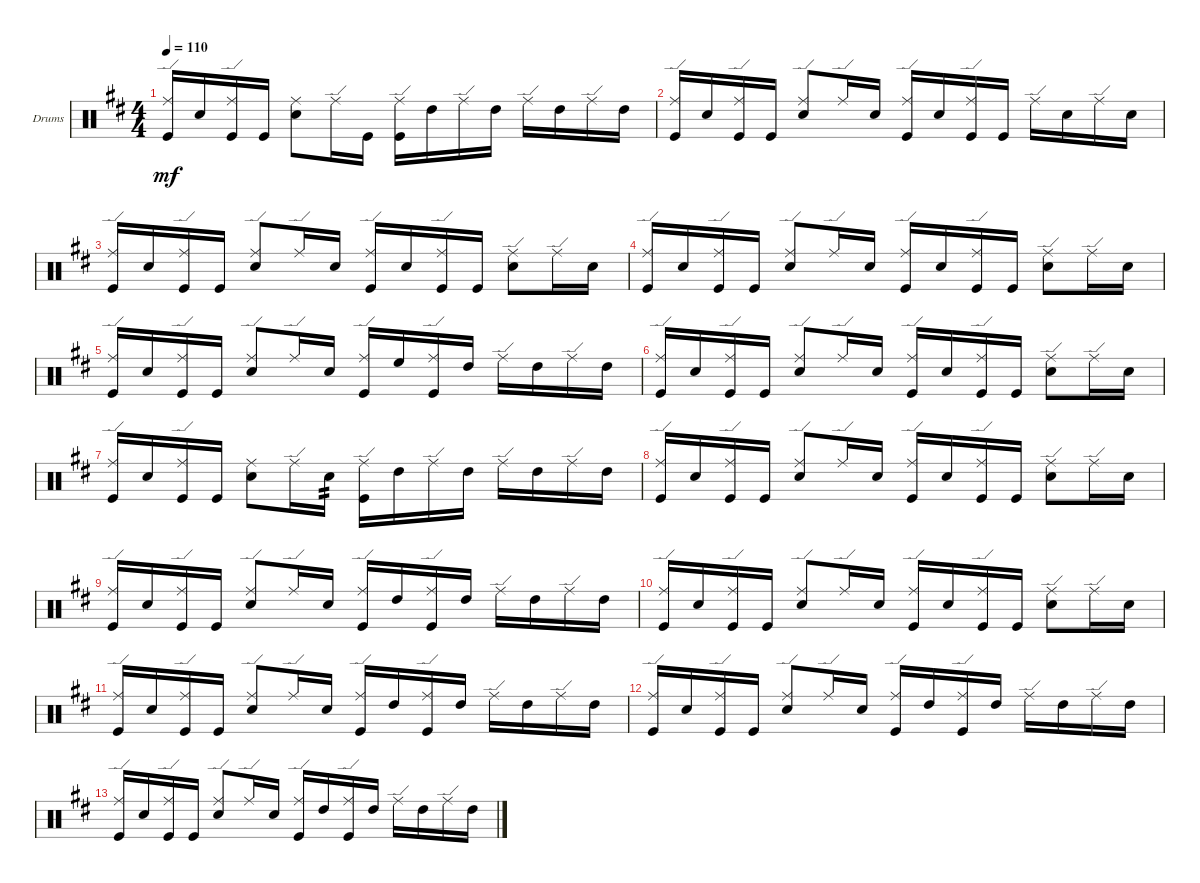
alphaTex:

\defaultSystemsLayout 4
\bracketExtendMode groupsimilarinstruments
\firstSystemTrackNameOrientation horizontal
\otherSystemsTrackNameOrientation horizontal
\track ("PETER CRISS" "Drums") {instrument percussion}
\staff {score}
\articulation defaults
\ts (4 4)
\tempo 110
\clef neutral
\ks d
("Ride (edge)" "Kick (hit)").16{dy mf beam invert} "Snare (hit) 2".16 ("Ride (edge)" "Kick (hit)").16 "Kick (hit)".16 ("Snare (hit) 2" "Ride (middle)").8 "Ride (edge)".16 "Kick (hit)".16 ("Ride (edge)" "Kick (hit)").16 "High Tom (hit)".16 "Ride (edge)".16 "High Tom (hit)".16 "Ride (edge)".16 "High Tom (hit)".16 "Ride (edge)".16 "High Tom (hit)".16 |
("Ride (edge)" "Kick (hit)").16{beam invert} "Snare (hit) 2".16 ("Kick (hit)" "Ride (edge)").16 "Kick (hit)".16 ("Snare (hit) 2" "Ride (edge)").8 "Ride (edge)".16 "Snare (hit) 2".16 ("Ride (edge)" "Kick (hit)").16{beam invert} "Snare (hit) 2".16 ("Kick (hit)" "Ride (edge)").16 "Kick (hit)".16 "Ride (edge)".16 "Snare (hit) 2".16 "Ride (edge)".16 "Snare (hit) 2".16 |
("Ride (edge)" "Kick (hit)").16{beam invert} "Snare (hit) 2".16 ("Kick (hit)" "Ride (edge)").16 "Kick (hit)".16 ("Snare (hit) 2" "Ride (edge)").8 "Ride (edge)".16 "Snare (hit) 2".16 ("Ride (edge)" "Kick (hit)").16{beam invert} "Snare (hit) 2".16 ("Kick (hit)" "Ride (edge)").16 "Kick (hit)".16 ("Snare (hit) 2" "Ride (edge)").8 "Ride (edge)".16 "Snare (hit) 2".16 |
("Ride (edge)" "Kick (hit)").16{beam invert} "Snare (hit) 2".16 ("Kick (hit)" "Ride (edge)").16 "Kick (hit)".16 ("Snare (hit) 2" "Ride (edge)").8 "Ride (edge)".16 "Snare (hit) 2".16 ("Ride (edge)" "Kick (hit)").16{beam invert} "Snare (hit) 2".16 ("Kick (hit)" "Ride (edge)").16 "Kick (hit)".16 ("Snare (hit) 2" "Ride (edge)").8 "Ride (edge)".16 "Snare (hit) 2".16 |
("Ride (edge)" "Kick (hit)").16{beam invert} "Snare (hit) 2".16 ("Kick (hit)" "Ride (edge)").16 "Kick (hit)".16 ("Snare (hit) 2" "Ride (edge)").8 "Ride (edge)".16 "Snare (hit) 2".16 ("Ride (edge)" "Kick (hit)").16{beam invert} "High Floor Tom (hit)".16 ("Kick (hit)" "Ride (edge)").16 "High Tom (hit)".16 "Ride (edge)".16 "High Tom (hit)".16 "Ride (edge)".16 "High Tom (hit)".16 |
("Ride (edge)" "Kick (hit)").16{beam invert} "Snare (hit) 2".16 ("Kick (hit)" "Ride (edge)").16 "Kick (hit)".16 ("Snare (hit) 2" "Ride (edge)").8 "Ride (edge)".16 "Snare (hit) 2".16 ("Ride (edge)" "Kick (hit)").16{beam invert} "Snare (hit) 2".16 ("Kick (hit)" "Ride (edge)").16 "Kick (hit)".16 ("Snare (hit) 2" "Ride (edge)").8 "Ride (edge)".16 "Snare (hit) 2".16 |
("Ride (edge)" "Kick (hit)").16{beam invert} "Snare (hit) 2".16 ("Ride (edge)" "Kick (hit)").16 "Kick (hit)".16 ("Snare (hit) 2" "Ride (middle)").8 "Ride (edge)".16 "Snare (hit) 2".16{tp 2} ("Ride (edge)" "Kick (hit)").16 "High Tom (hit)".16 "Ride (edge)".16 "High Tom (hit)".16 "Ride (edge)".16 "High Tom (hit)".16 "Ride (edge)".16 "High Tom (hit)".16 |
("Ride (edge)" "Kick (hit)").16{beam invert} "Snare (hit) 2".16 ("Kick (hit)" "Ride (edge)").16 "Kick (hit)".16 ("Snare (hit) 2" "Ride (edge)").8 "Ride (edge)".16 "Snare (hit) 2".16 ("Ride (edge)" "Kick (hit)").16{beam invert} "Snare (hit) 2".16 ("Kick (hit)" "Ride (edge)").16 "Kick (hit)".16 ("Snare (hit) 2" "Ride (edge)").8 "Ride (edge)".16 "Snare (hit) 2".16 |
("Ride (edge)" "Kick (hit)").16{beam invert} "Snare (hit) 2".16 ("Kick (hit)" "Ride (edge)").16 "Kick (hit)".16 ("Snare (hit) 2" "Ride (edge)").8 "Ride (edge)".16 "Snare (hit) 2".16 ("Ride (edge)" "Kick (hit)").16{beam invert} "High Tom (hit)".16 ("Kick (hit)" "Ride (edge)").16 "High Tom (hit)".16 "Ride (edge)".16 "High Tom (hit)".16 "Ride (edge)".16 "High Tom (hit)".16 |
("Ride (edge)" "Kick (hit)").16{beam invert} "Snare (hit) 2".16 ("Kick (hit)" "Ride (edge)").16 "Kick (hit)".16 ("Snare (hit) 2" "Ride (edge)").8 "Ride (edge)".16 "Snare (hit) 2".16 ("Ride (edge)" "Kick (hit)").16{beam invert} "Snare (hit) 2".16 ("Kick (hit)" "Ride (edge)").16 "Kick (hit)".16 ("Snare (hit) 2" "Ride (edge)").8 "Ride (edge)".16 "Snare (hit) 2".16 |
("Ride (edge)" "Kick (hit)").16{beam invert} "Snare (hit) 2".16 ("Kick (hit)" "Ride (edge)").16 "Kick (hit)".16 ("Snare (hit) 2" "Ride (edge)").8 "Ride (edge)".16 "Snare (hit) 2".16 ("Ride (edge)" "Kick (hit)").16{beam invert} "High Tom (hit)".16 ("Kick (hit)" "Ride (edge)").16 "High Tom (hit)".16 "Ride (edge)".16 "High Tom (hit)".16 "Ride (edge)".16 "High Tom (hit)".16 |
("Ride (edge)" "Kick (hit)").16{beam invert} "Snare (hit) 2".16 ("Kick (hit)" "Ride (edge)").16 "Kick (hit)".16 ("Snare (hit) 2" "Ride (edge)").8 "Ride (edge)".16 "Snare (hit) 2".16 ("Ride (edge)" "Kick (hit)").16{beam invert} "High Tom (hit)".16 ("Kick (hit)" "Ride (edge)").16 "High Tom (hit)".16 "Ride (edge)".16 "High Tom (hit)".16 "Ride (edge)".16 "High Tom (hit)".16 |
("Ride (edge)" "Kick (hit)").16{beam invert} "Snare (hit) 2".16 ("Kick (hit)" "Ride (edge)").16 "Kick (hit)".16 ("Snare (hit) 2" "Ride (edge)").8 "Ride (edge)".16 "Snare (hit) 2".16 ("Ride (edge)" "Kick (hit)").16{beam invert} "High Tom (hit)".16 ("Kick (hit)" "Ride (edge)").16 "High Tom (hit)".16 "Ride (edge)".16 "High Tom (hit)".16 "Ride (edge)".16 "High Tom (hit)".16
